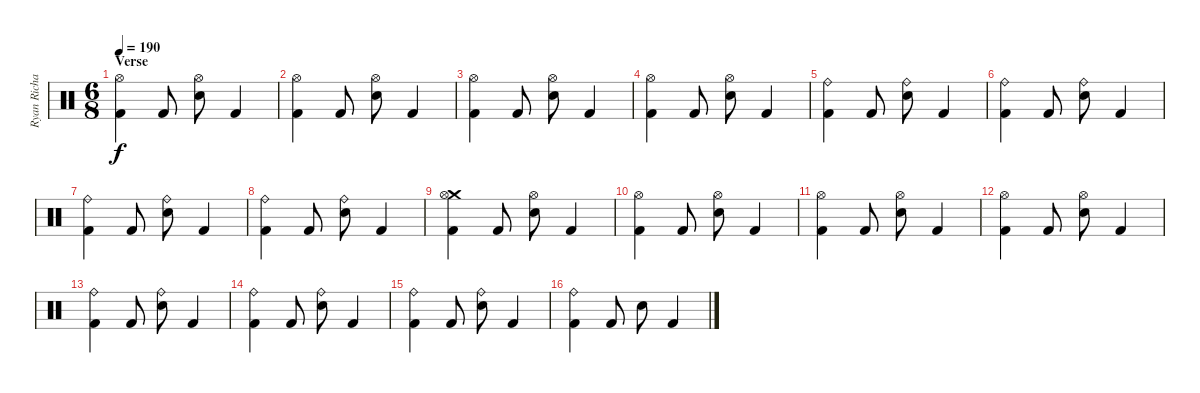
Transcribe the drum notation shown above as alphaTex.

\track ("Ryan Richards" "Ryan Richa") {instrument percussion bank 127}
\staff {score}
\articulation defaults
\ts (6 8)
\section ("" "Verse")
\tempo 190
\clef neutral
\ks c
("Hi-Hat (open)" "Kick (hit) 2").4{dy f} "Kick (hit) 2".8 ("Hi-Hat (open)" "Snare (hit) 2").8 "Kick (hit) 2".4 |
("Hi-Hat (open)" "Kick (hit) 2").4 "Kick (hit) 2".8 ("Hi-Hat (open)" "Snare (hit) 2").8 "Kick (hit) 2".4 |
("Hi-Hat (open)" "Kick (hit) 2").4 "Kick (hit) 2".8 ("Hi-Hat (open)" "Snare (hit) 2").8 "Kick (hit) 2".4 |
("Hi-Hat (open)" "Kick (hit) 2").4 "Kick (hit) 2".8 ("Hi-Hat (open)" "Snare (hit) 2").8 "Kick (hit) 2".4 |
("Ride (bell)" "Kick (hit) 2").4 "Kick (hit) 2".8 ("Ride (bell)" "Snare (hit) 2").8 "Kick (hit) 2".4 |
("Ride (bell)" "Kick (hit) 2").4 "Kick (hit) 2".8 ("Ride (bell)" "Snare (hit) 2").8 "Kick (hit) 2".4 |
("Ride (bell)" "Kick (hit) 2").4 "Kick (hit) 2".8 ("Ride (bell)" "Snare (hit) 2").8 "Kick (hit) 2".4 |
("Ride (bell)" "Kick (hit) 2").4 "Kick (hit) 2".8 ("Ride (bell)" "Snare (hit) 2").8 "Kick (hit) 2".4 |
("Crash medium (hit)" "Hi-Hat (open)" "Kick (hit) 2").4 "Kick (hit) 2".8 ("Hi-Hat (open)" "Snare (hit) 2").8 "Kick (hit) 2".4 |
("Hi-Hat (open)" "Kick (hit) 2").4 "Kick (hit) 2".8 ("Hi-Hat (open)" "Snare (hit) 2").8 "Kick (hit) 2".4 |
("Hi-Hat (open)" "Kick (hit) 2").4 "Kick (hit) 2".8 ("Hi-Hat (open)" "Snare (hit) 2").8 "Kick (hit) 2".4 |
("Hi-Hat (open)" "Kick (hit) 2").4 "Kick (hit) 2".8 ("Hi-Hat (open)" "Snare (hit) 2").8 "Kick (hit) 2".4 |
("Ride (bell)" "Kick (hit) 2").4 "Kick (hit) 2".8 ("Ride (bell)" "Snare (hit) 2").8 "Kick (hit) 2".4 |
("Ride (bell)" "Kick (hit) 2").4 "Kick (hit) 2".8 ("Ride (bell)" "Snare (hit) 2").8 "Kick (hit) 2".4 |
("Ride (bell)" "Kick (hit) 2").4 "Kick (hit) 2".8 ("Ride (bell)" "Snare (hit) 2").8 "Kick (hit) 2".4 |
("Ride (bell)" "Kick (hit) 2").4 "Kick (hit) 2".8 "Snare (hit) 2".8 "Kick (hit) 2".4
